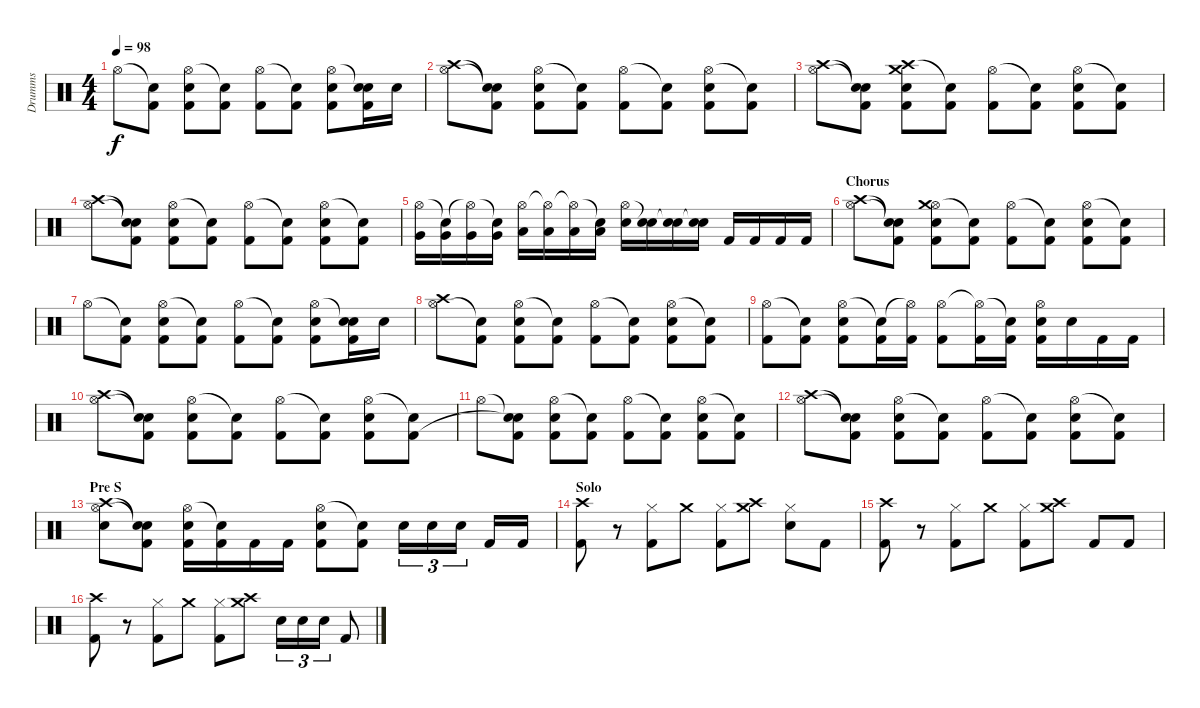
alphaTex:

\track ("Drumms" "Drumms") {instrument percussion}
\staff {score}
\articulation defaults
\ts (4 4)
\tempo 98
\clef neutral
\ks c "Hi-Hat (open)".8{dy f volume 13}
("Snare (hit)"{t} "Kick (hit) 2").8 ("Hi-Hat (open)" "Electric Snare (hit)" "Kick (hit) 2").8 ("Snare (hit)"{t} "Kick (hit) 2").8 ("Hi-Hat (open)" "Kick (hit) 2").8 ("Snare (hit)"{t} "Kick (hit) 2").8 ("Hi-Hat (open)" "Electric Snare (hit)" "Kick (hit) 2").8 ("Snare (hit)"{t} "Electric Snare (hit)" "Kick (hit) 2").16 "Electric Snare (hit)".16 |
("Hi-Hat (open)" "Crash high (hit)").8 ("Snare (hit)"{t} "Snare (hit)"{t} "Kick (hit) 2").8 ("Hi-Hat (open)" "Electric Snare (hit)" "Kick (hit) 2").8 ("Snare (hit)"{t} "Kick (hit) 2").8 ("Hi-Hat (open)" "Kick (hit) 2").8 ("Snare (hit)"{t} "Kick (hit) 2").8 ("Hi-Hat (open)" "Electric Snare (hit)" "Kick (hit) 2").8 ("Snare (hit)"{t} "Kick (hit) 2").8 |
("Hi-Hat (open)" "Crash high (hit)").8 ("Snare (hit)"{t} "Snare (hit)"{t} "Kick (hit) 2").8 ("Crash high (hit)" "Electric Snare (hit)" "Kick (hit) 2" "Crash medium (hit)").8 ("Snare (hit)"{t} "Kick (hit) 2").8 ("Hi-Hat (open)" "Kick (hit) 2").8 ("Snare (hit)"{t} "Kick (hit) 2").8 ("Hi-Hat (open)" "Electric Snare (hit)" "Kick (hit) 2").8 ("Snare (hit)"{t} "Kick (hit) 2").8 |
("Hi-Hat (open)" "Crash high (hit)").8 ("Snare (hit)"{t} "Snare (hit)"{t} "Kick (hit) 2").8 ("Hi-Hat (open)" "Electric Snare (hit)" "Kick (hit) 2").8 ("Snare (hit)"{t} "Kick (hit) 2").8 ("Hi-Hat (open)" "Kick (hit) 2").8 ("Snare (hit)"{t} "Kick (hit) 2").8 ("Hi-Hat (open)" "Electric Snare (hit)" "Kick (hit) 2").8 ("Snare (hit)"{t} "Kick (hit) 2").8 |
("Hi-Hat (open)" "Very Low Tom (hit)").16{volume 13} ("Snare (hit)"{t} "Very Low Tom (hit)").16 ("Hi-Hat (open)"{t} "Very Low Tom (hit)").16 ("Snare (hit)"{t} "Very Low Tom (hit)").16 ("Hi-Hat (open)" "Low Tom (hit)").16 ("Hi-Hat (open)"{t} "Low Tom (hit)").16 ("Hi-Hat (open)"{t} "Low Tom (hit)").16 ("Snare (hit)"{t} "Low Tom (hit)").16 ("Hi-Hat (open)" "Electric Snare (hit)").16 ("Snare (hit)"{t} "Electric Snare (hit)").16 ("Snare (hit)"{t} "Snare (hit) 2").16 ("Snare (hit)"{t} "Snare (hit) 2").16 "Kick (hit) 2".16 "Kick (hit) 2".16 "Kick (hit) 2".16 "Kick (hit) 2".16 |
\section ("" "Chorus")
("Hi-Hat (open)" "Crash high (hit)").8 ("Snare (hit)"{t} "Snare (hit)"{t} "Kick (hit) 2").8 ("Hi-Hat (open)" "Electric Snare (hit)" "Kick (hit) 2" "Crash medium (hit)").8 ("Snare (hit)"{t} "Kick (hit) 2").8 ("Hi-Hat (open)" "Kick (hit) 2").8 ("Snare (hit)"{t} "Kick (hit) 2").8 ("Hi-Hat (open)" "Electric Snare (hit)" "Kick (hit) 2").8 ("Snare (hit)"{t} "Kick (hit) 2").8 |
"Hi-Hat (open)".8{volume 13} ("Snare (hit)"{t} "Kick (hit) 2").8 ("Hi-Hat (open)" "Electric Snare (hit)" "Kick (hit) 2").8 ("Snare (hit)"{t} "Kick (hit) 2").8 ("Hi-Hat (open)" "Kick (hit) 2").8 ("Snare (hit)"{t} "Kick (hit) 2").8 ("Hi-Hat (open)" "Electric Snare (hit)" "Kick (hit) 2").8 ("Snare (hit)"{t} "Electric Snare (hit)" "Kick (hit) 2").16 "Electric Snare (hit)".16 |
("Hi-Hat (open)" "Crash high (hit)").8{volume 13} ("Snare (hit)"{t} "Kick (hit) 2").8 ("Hi-Hat (open)" "Electric Snare (hit)" "Kick (hit) 2").8 ("Snare (hit)"{t} "Kick (hit) 2").8 ("Hi-Hat (open)" "Kick (hit) 2").8 ("Snare (hit)"{t} "Kick (hit) 2").8 ("Hi-Hat (open)" "Electric Snare (hit)" "Kick (hit) 2").8 ("Snare (hit)"{t} "Kick (hit) 2").8 |
("Hi-Hat (open)" "Kick (hit) 2").8{volume 13} ("Snare (hit)"{t} "Kick (hit) 2").8 ("Hi-Hat (open)" "Electric Snare (hit)" "Kick (hit) 2").8 ("Snare (hit)"{t} "Kick (hit) 2").16 ("Hi-Hat (open)"{t} "Kick (hit) 2").16 ("Hi-Hat (open)" "Kick (hit) 2").8 ("Hi-Hat (open)"{t} "Kick (hit) 2").16 ("Snare (hit)"{t} "Kick (hit) 2").16 ("Hi-Hat (open)" "Electric Snare (hit)" "Kick (hit) 2").16 "Electric Snare (hit)".16 "Kick (hit) 2".16 "Kick (hit) 2".16 |
("Hi-Hat (open)" "Crash high (hit)").8 ("Snare (hit)"{t} "Snare (hit)"{t} "Kick (hit) 2").8 ("Hi-Hat (open)" "Electric Snare (hit)" "Kick (hit) 2").8 ("Snare (hit)"{t} "Kick (hit) 2").8 ("Hi-Hat (open)" "Kick (hit) 2").8 ("Snare (hit)"{t} "Kick (hit) 2").8 ("Hi-Hat (open)" "Electric Snare (hit)" "Kick (hit) 2").8 ("Snare (hit)"{t} "Kick (hit) 2").8 |
"Hi-Hat (open)".8 ("Snare (hit)"{t} "Snare (hit)"{t} "Kick (hit) 2").8 ("Hi-Hat (open)" "Electric Snare (hit)" "Kick (hit) 2").8 ("Snare (hit)"{t} "Kick (hit) 2").8 ("Hi-Hat (open)" "Kick (hit) 2").8 ("Snare (hit)"{t} "Kick (hit) 2").8 ("Hi-Hat (open)" "Electric Snare (hit)" "Kick (hit) 2").8 ("Snare (hit)"{t} "Kick (hit) 2").8 |
("Hi-Hat (open)" "Crash high (hit)").8 ("Snare (hit)"{t} "Snare (hit)"{t} "Kick (hit) 2").8 ("Hi-Hat (open)" "Electric Snare (hit)" "Kick (hit) 2").8 ("Snare (hit)"{t} "Kick (hit) 2").8 ("Hi-Hat (open)" "Kick (hit) 2").8 ("Snare (hit)"{t} "Kick (hit) 2").8 ("Hi-Hat (open)" "Electric Snare (hit)" "Kick (hit) 2").8 ("Snare (hit)"{t} "Kick (hit) 2").8 |
\section ("" "Pre S")
("Hi-Hat (open)" "Crash high (hit)" "Electric Snare (hit)").8 ("Snare (hit)"{t} "Snare (hit)"{t} "Kick (hit) 2").8 ("Hi-Hat (open)" "Electric Snare (hit)" "Kick (hit) 2").16 ("Snare (hit)"{t} "Kick (hit) 2").16 "Kick (hit) 2".16 "Kick (hit) 2".16 ("Hi-Hat (open)" "Electric Snare (hit)" "Kick (hit) 2").8 ("Snare (hit)"{t} "Kick (hit) 2").8 "Electric Snare (hit)".16{tu (3 2)} "Electric Snare (hit)".16{tu (3 2)} "Electric Snare (hit)".16{tu (3 2)} "Kick (hit) 2".16 "Kick (hit) 2".16 |
\section ("" "Solo")
("Crash high (hit)" "Kick (hit) 2").8 r.8 ("Hi-Hat (closed)" "Kick (hit) 2").8 "Crash medium (hit)".8 ("Hi-Hat (closed)" "Kick (hit) 2").8 ("Crash medium (hit)" "Crash high (hit)").8 ("Electric Snare (hit)" "Hi-Hat (closed)").8 "Kick (hit) 2".8 |
("Crash high (hit)" "Kick (hit) 2").8 r.8 ("Hi-Hat (closed)" "Kick (hit) 2").8 "Crash medium (hit)".8 ("Hi-Hat (closed)" "Kick (hit) 2").8 ("Crash medium (hit)" "Crash high (hit)").8 "Kick (hit) 2".8 "Kick (hit) 2".8 |
("Crash high (hit)" "Kick (hit) 2").8 r.8 ("Hi-Hat (closed)" "Kick (hit) 2").8 "Crash medium (hit)".8 ("Hi-Hat (closed)" "Kick (hit) 2").8 ("Crash medium (hit)" "Crash high (hit)").8 "Electric Snare (hit)".16{tu (3 2)} "Electric Snare (hit)".16{tu (3 2)} "Electric Snare (hit)".16{tu (3 2)} "Kick (hit) 2".8
